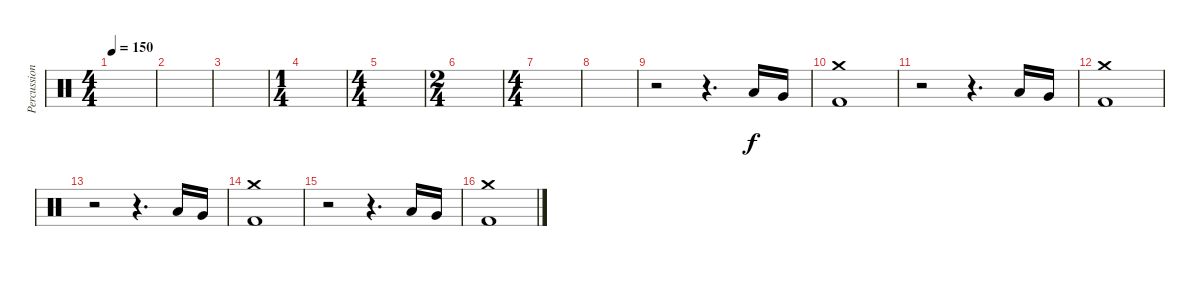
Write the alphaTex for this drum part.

\track ("Percussioni" "Percussion") {instrument percussion}
\staff {score}
\articulation defaults
\ts (4 4)
\tempo 150
\clef neutral
\ks c
|
|
|
\ts (1 4)
|
\ts (4 4)
|
\ts (2 4)
|
\ts (4 4)
|
|
r.2 r.4{d} "Low Tom (hit)".16 "Very Low Tom (hit)".16 |
("Crash medium (hit)" "Kick (hit) 2").1 |
r.2 r.4{d} "Low Tom (hit)".16 "Very Low Tom (hit)".16 |
("Crash medium (hit)" "Kick (hit) 2").1 |
r.2 r.4{d} "Low Tom (hit)".16 "Very Low Tom (hit)".16 |
("Crash medium (hit)" "Kick (hit) 2").1 |
r.2 r.4{d} "Low Tom (hit)".16 "Very Low Tom (hit)".16 |
("Crash medium (hit)" "Kick (hit) 2").1
